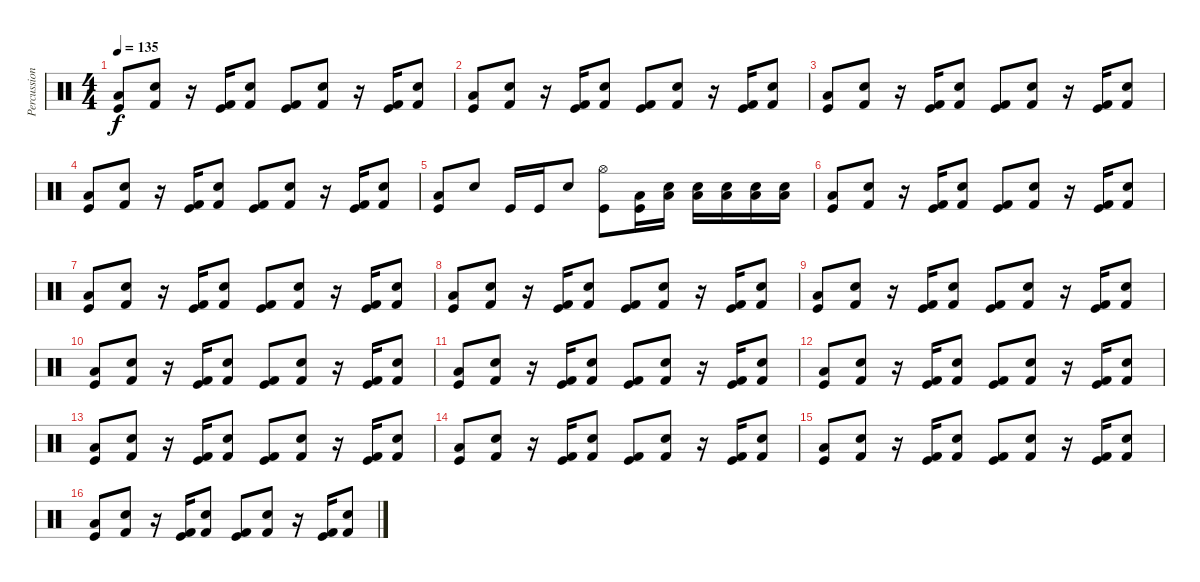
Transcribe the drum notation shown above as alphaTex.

\track ("Percussion" "Percussion") {instrument percussion}
\staff {score}
\articulation defaults
\ts (4 4)
\tempo 135
\clef neutral
\ks c
("Low Tom (hit)" "Kick (hit)").8{dy f} ("Kick (hit) 2" "Snare (hit) 2").8 r.16 ("Kick (hit) 2" "Kick (hit)").16 ("Kick (hit) 2" "Snare (hit) 2").8 ("Kick (hit) 2" "Kick (hit)").8 ("Kick (hit) 2" "Snare (hit) 2").8 r.16 ("Kick (hit) 2" "Kick (hit)").16 ("Kick (hit) 2" "Snare (hit) 2").8 |
("Low Tom (hit)" "Kick (hit)").8 ("Kick (hit) 2" "Snare (hit) 2").8 r.16 ("Kick (hit) 2" "Kick (hit)").16 ("Kick (hit) 2" "Snare (hit) 2").8 ("Kick (hit) 2" "Kick (hit)").8 ("Kick (hit) 2" "Snare (hit) 2").8 r.16 ("Kick (hit) 2" "Kick (hit)").16 ("Kick (hit) 2" "Snare (hit) 2").8 |
("Low Tom (hit)" "Kick (hit)").8 ("Kick (hit) 2" "Snare (hit) 2").8 r.16 ("Kick (hit) 2" "Kick (hit)").16 ("Kick (hit) 2" "Snare (hit) 2").8 ("Kick (hit) 2" "Kick (hit)").8 ("Kick (hit) 2" "Snare (hit) 2").8 r.16 ("Kick (hit) 2" "Kick (hit)").16 ("Kick (hit) 2" "Snare (hit) 2").8 |
("Low Tom (hit)" "Kick (hit)").8 ("Kick (hit) 2" "Snare (hit) 2").8 r.16 ("Kick (hit) 2" "Kick (hit)").16 ("Kick (hit) 2" "Snare (hit) 2").8 ("Kick (hit) 2" "Kick (hit)").8 ("Kick (hit) 2" "Snare (hit) 2").8 r.16 ("Kick (hit) 2" "Kick (hit)").16 ("Kick (hit) 2" "Snare (hit) 2").8 |
("Low Tom (hit)" "Kick (hit)").8 "Snare (hit) 2".8 "Kick (hit)".16 "Kick (hit)".16 "Snare (hit) 2".8 ("Hi-Hat (open)" "Kick (hit)").8 ("Low Tom (hit)" "Kick (hit)").16 ("Low Tom (hit)" "Snare (hit) 2").16 ("Low Tom (hit)" "Snare (hit) 2").16 ("Low Tom (hit)" "Snare (hit) 2").16 ("Low Tom (hit)" "Snare (hit) 2").16 ("Low Tom (hit)" "Snare (hit) 2").16 |
("Low Tom (hit)" "Kick (hit)").8 ("Kick (hit) 2" "Snare (hit) 2").8 r.16 ("Kick (hit) 2" "Kick (hit)").16 ("Kick (hit) 2" "Snare (hit) 2").8 ("Kick (hit) 2" "Kick (hit)").8 ("Kick (hit) 2" "Snare (hit) 2").8 r.16 ("Kick (hit) 2" "Kick (hit)").16 ("Kick (hit) 2" "Snare (hit) 2").8 |
("Low Tom (hit)" "Kick (hit)").8 ("Kick (hit) 2" "Snare (hit) 2").8 r.16 ("Kick (hit) 2" "Kick (hit)").16 ("Kick (hit) 2" "Snare (hit) 2").8 ("Kick (hit) 2" "Kick (hit)").8 ("Kick (hit) 2" "Snare (hit) 2").8 r.16 ("Kick (hit) 2" "Kick (hit)").16 ("Kick (hit) 2" "Snare (hit) 2").8 |
("Low Tom (hit)" "Kick (hit)").8 ("Kick (hit) 2" "Snare (hit) 2").8 r.16 ("Kick (hit) 2" "Kick (hit)").16 ("Kick (hit) 2" "Snare (hit) 2").8 ("Kick (hit) 2" "Kick (hit)").8 ("Kick (hit) 2" "Snare (hit) 2").8 r.16 ("Kick (hit) 2" "Kick (hit)").16 ("Kick (hit) 2" "Snare (hit) 2").8 |
("Low Tom (hit)" "Kick (hit)").8 ("Kick (hit) 2" "Snare (hit) 2").8 r.16 ("Kick (hit) 2" "Kick (hit)").16 ("Kick (hit) 2" "Snare (hit) 2").8 ("Kick (hit) 2" "Kick (hit)").8 ("Kick (hit) 2" "Snare (hit) 2").8 r.16 ("Kick (hit) 2" "Kick (hit)").16 ("Kick (hit) 2" "Snare (hit) 2").8 |
("Low Tom (hit)" "Kick (hit)").8 ("Kick (hit) 2" "Snare (hit) 2").8 r.16 ("Kick (hit) 2" "Kick (hit)").16 ("Kick (hit) 2" "Snare (hit) 2").8 ("Kick (hit) 2" "Kick (hit)").8 ("Kick (hit) 2" "Snare (hit) 2").8 r.16 ("Kick (hit) 2" "Kick (hit)").16 ("Kick (hit) 2" "Snare (hit) 2").8 |
("Low Tom (hit)" "Kick (hit)").8 ("Kick (hit) 2" "Snare (hit) 2").8 r.16 ("Kick (hit) 2" "Kick (hit)").16 ("Kick (hit) 2" "Snare (hit) 2").8 ("Kick (hit) 2" "Kick (hit)").8 ("Kick (hit) 2" "Snare (hit) 2").8 r.16 ("Kick (hit) 2" "Kick (hit)").16 ("Kick (hit) 2" "Snare (hit) 2").8 |
("Low Tom (hit)" "Kick (hit)").8 ("Kick (hit) 2" "Snare (hit) 2").8 r.16 ("Kick (hit) 2" "Kick (hit)").16 ("Kick (hit) 2" "Snare (hit) 2").8 ("Kick (hit) 2" "Kick (hit)").8 ("Kick (hit) 2" "Snare (hit) 2").8 r.16 ("Kick (hit) 2" "Kick (hit)").16 ("Kick (hit) 2" "Snare (hit) 2").8 |
("Low Tom (hit)" "Kick (hit)").8 ("Kick (hit) 2" "Snare (hit) 2").8 r.16 ("Kick (hit) 2" "Kick (hit)").16 ("Kick (hit) 2" "Snare (hit) 2").8 ("Kick (hit) 2" "Kick (hit)").8 ("Kick (hit) 2" "Snare (hit) 2").8 r.16 ("Kick (hit) 2" "Kick (hit)").16 ("Kick (hit) 2" "Snare (hit) 2").8 |
("Low Tom (hit)" "Kick (hit)").8 ("Kick (hit) 2" "Snare (hit) 2").8 r.16 ("Kick (hit) 2" "Kick (hit)").16 ("Kick (hit) 2" "Snare (hit) 2").8 ("Kick (hit) 2" "Kick (hit)").8 ("Kick (hit) 2" "Snare (hit) 2").8 r.16 ("Kick (hit) 2" "Kick (hit)").16 ("Kick (hit) 2" "Snare (hit) 2").8 |
("Low Tom (hit)" "Kick (hit)").8 ("Kick (hit) 2" "Snare (hit) 2").8 r.16 ("Kick (hit) 2" "Kick (hit)").16 ("Kick (hit) 2" "Snare (hit) 2").8 ("Kick (hit) 2" "Kick (hit)").8 ("Kick (hit) 2" "Snare (hit) 2").8 r.16 ("Kick (hit) 2" "Kick (hit)").16 ("Kick (hit) 2" "Snare (hit) 2").8 |
("Low Tom (hit)" "Kick (hit)").8 ("Kick (hit) 2" "Snare (hit) 2").8 r.16 ("Kick (hit) 2" "Kick (hit)").16 ("Kick (hit) 2" "Snare (hit) 2").8 ("Kick (hit) 2" "Kick (hit)").8 ("Kick (hit) 2" "Snare (hit) 2").8 r.16 ("Kick (hit) 2" "Kick (hit)").16 ("Kick (hit) 2" "Snare (hit) 2").8
